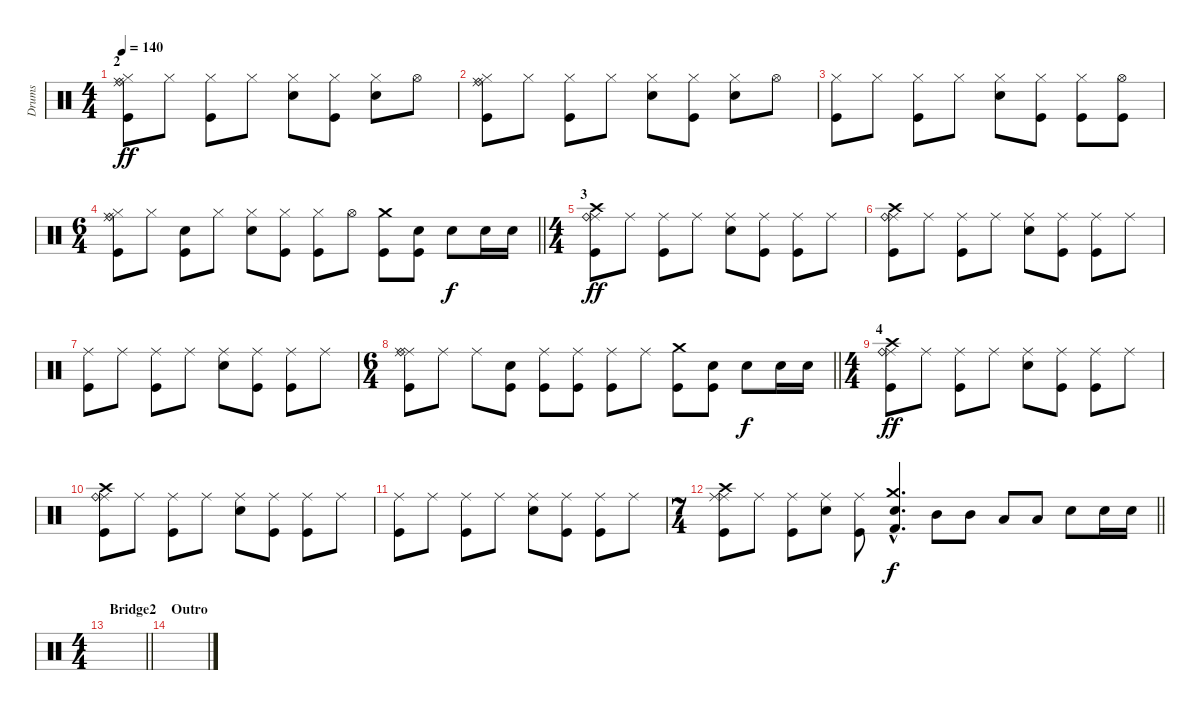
\track ("Drums" "Drums") {instrument percussion}
\staff {score}
\articulation defaults
\ts (4 4)
\section ("" "2")
\tempo 140
\clef neutral
\ks c
("Kick (hit)" "Hi-Hat (closed)" "Ride (middle)" "Ride (bell)").8{dy ff} "Hi-Hat (closed)".8 ("Kick (hit)" "Hi-Hat (closed)").8 "Hi-Hat (closed)".8 ("Snare (hit) 2" "Hi-Hat (closed)").8 ("Kick (hit)" "Hi-Hat (closed)").8 ("Snare (hit) 2" "Hi-Hat (closed)").8 "Hi-Hat (open)".8 |
("Kick (hit)" "Hi-Hat (closed)" "Ride (middle)" "Ride (bell)").8 "Hi-Hat (closed)".8 ("Kick (hit)" "Hi-Hat (closed)").8 "Hi-Hat (closed)".8 ("Snare (hit) 2" "Hi-Hat (closed)").8 ("Kick (hit)" "Hi-Hat (closed)").8 ("Snare (hit) 2" "Hi-Hat (closed)").8 "Hi-Hat (open)".8 |
("Kick (hit)" "Hi-Hat (closed)").8 "Hi-Hat (closed)".8 ("Kick (hit)" "Hi-Hat (closed)").8 "Hi-Hat (closed)".8 ("Snare (hit) 2" "Hi-Hat (closed)").8 ("Kick (hit)" "Hi-Hat (closed)").8 ("Kick (hit)" "Hi-Hat (closed)").8 ("Kick (hit)" "Hi-Hat (open)").8 |
\ts (6 4)
\barLineRight lightlight
("Kick (hit)" "Hi-Hat (closed)" "Ride (middle)" "Ride (bell)").8 "Hi-Hat (closed)".8 ("Kick (hit)" "Snare (hit) 2").8 "Hi-Hat (closed)".8 ("Snare (hit) 2" "Hi-Hat (closed)").8 ("Kick (hit)" "Hi-Hat (closed)").8 ("Kick (hit)" "Hi-Hat (closed)").8 "Hi-Hat (open)".8 ("Kick (hit)" "Crash medium (hit)").8 ("Kick (hit)" "Snare (hit) 2").8 "Snare (hit) 2".8{dy f} "Snare (hit) 2".16 "Snare (hit) 2".16 |
\ts (4 4)
\section ("" "3")
("Kick (hit)" "Crash high (hit)" "Ride (middle)" "Ride (bell)").8{dy ff} "Ride (middle)".8 ("Kick (hit)" "Ride (middle)").8 "Ride (middle)".8 ("Snare (hit) 2" "Ride (middle)").8 ("Kick (hit)" "Ride (middle)").8 ("Kick (hit)" "Ride (middle)").8 "Ride (middle)".8 |
("Kick (hit)" "Crash high (hit)" "Ride (middle)" "Ride (bell)").8 "Ride (middle)".8 ("Kick (hit)" "Ride (middle)").8 "Ride (middle)".8 ("Snare (hit) 2" "Ride (middle)").8 ("Kick (hit)" "Ride (middle)").8 ("Kick (hit)" "Ride (middle)").8 "Ride (middle)".8 |
("Kick (hit)" "Ride (middle)").8 "Ride (middle)".8 ("Kick (hit)" "Ride (middle)").8 "Ride (middle)".8 ("Snare (hit) 2" "Ride (middle)").8 ("Kick (hit)" "Ride (middle)").8 ("Kick (hit)" "Ride (middle)").8 "Ride (middle)".8 |
\ts (6 4)
\barLineRight lightlight
("Kick (hit)" "Ride (middle)" "Ride (middle)" "Ride (bell)").8 "Ride (middle)".8 "Ride (middle)".8 ("Kick (hit)" "Snare (hit) 2").8 ("Kick (hit)" "Ride (middle)").8 ("Kick (hit)" "Ride (middle)").8 ("Kick (hit)" "Ride (middle)").8 "Ride (middle)".8 ("Kick (hit)" "Crash medium (hit)").8 ("Kick (hit)" "Snare (hit) 2").8 "Snare (hit) 2".8{dy f} "Snare (hit) 2".16 "Snare (hit) 2".16 |
\ts (4 4)
\section ("" "4")
("Kick (hit)" "Crash high (hit)" "Ride (middle)" "Ride (bell)").8{dy ff} "Ride (middle)".8 ("Kick (hit)" "Ride (middle)").8 "Ride (middle)".8 ("Snare (hit) 2" "Ride (middle)").8 ("Kick (hit)" "Ride (middle)").8 ("Kick (hit)" "Ride (middle)").8 "Ride (middle)".8 |
("Kick (hit)" "Crash high (hit)" "Ride (middle)" "Ride (bell)").8 "Ride (middle)".8 ("Kick (hit)" "Ride (middle)").8 "Ride (middle)".8 ("Snare (hit) 2" "Ride (middle)").8 ("Kick (hit)" "Ride (middle)").8 ("Kick (hit)" "Ride (middle)").8 "Ride (middle)".8 |
("Kick (hit)" "Ride (middle)").8 "Ride (middle)".8 ("Kick (hit)" "Ride (middle)").8 "Ride (middle)".8 ("Snare (hit) 2" "Ride (middle)").8 ("Kick (hit)" "Ride (middle)").8 ("Kick (hit)" "Ride (middle)").8 "Ride (middle)".8 |
\ts (7 4)
\barLineRight lightlight
("Kick (hit)" "Ride (middle)" "Ride (middle)" "Crash high (hit)").8 "Ride (middle)".8 ("Ride (middle)" "Kick (hit)").8 ("Ride (middle)" "Snare (hit) 2").8 ("Kick (hit)" "Ride (middle)").8 ("Crash medium (hit)"{hac} "Snare (hit) 2"{hac} "Kick (hit) 2"{hac}).4{d dy f} "Mid Tom (hit)".8 "Mid Tom (hit)".8 "Low Tom (hit)".8 "Low Tom (hit)".8 "Snare (hit) 2".8 "Snare (hit) 2".16 "Snare (hit) 2".16 |
\ts (4 4)
\section ("" "Bridge2")
\barLineRight lightlight
|
\section ("" "Outro")
